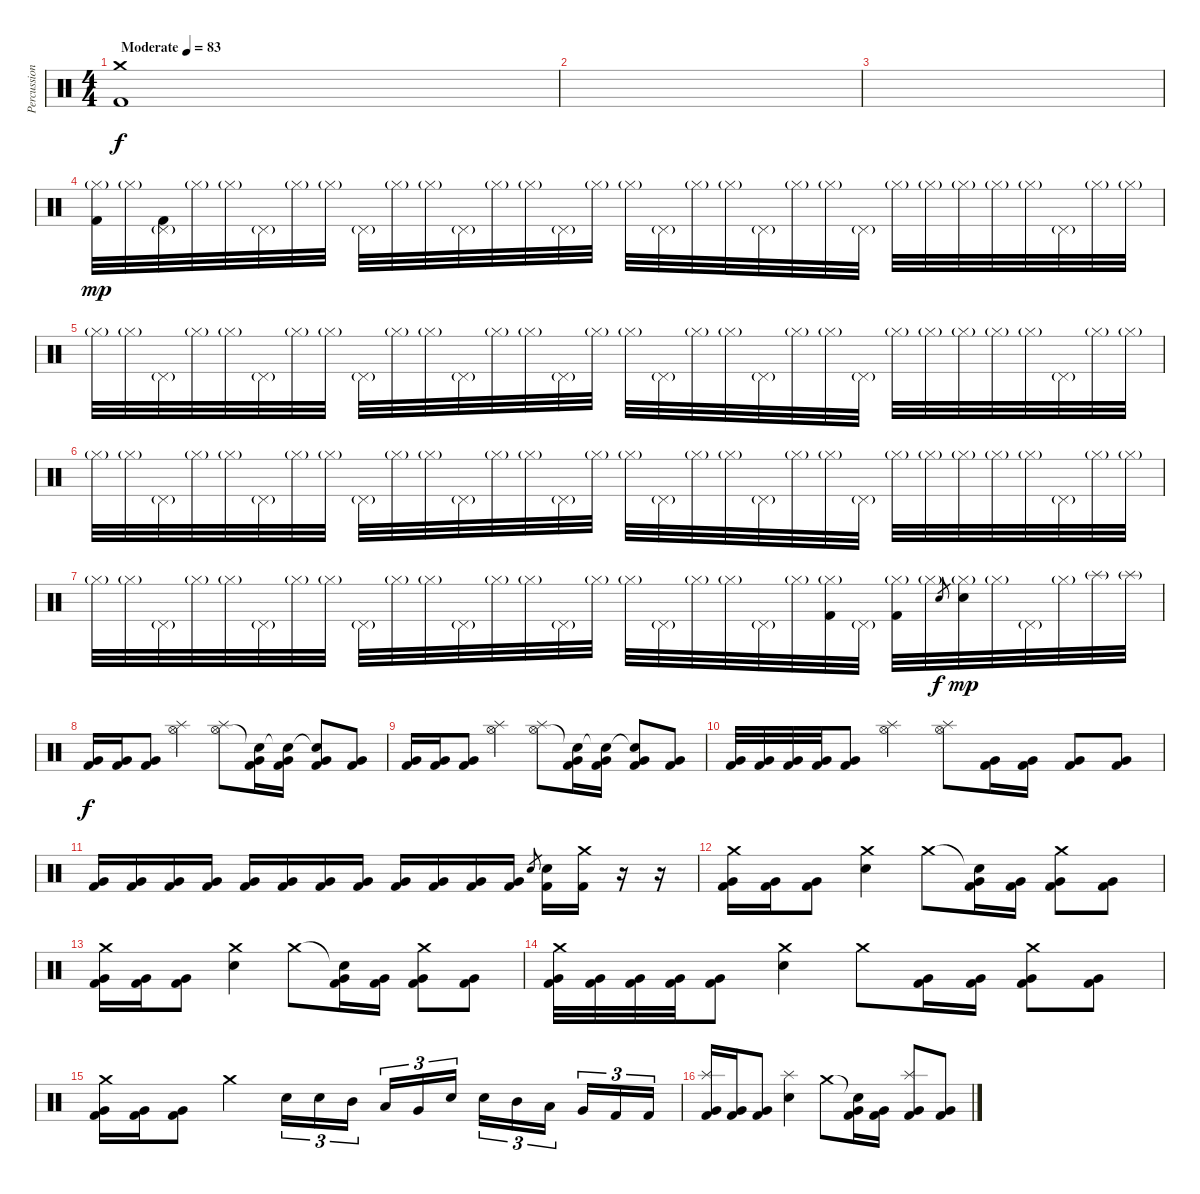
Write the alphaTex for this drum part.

\track ("Percussion" "Percussion") {instrument percussion}
\staff {score}
\articulation defaults
\ts (4 4)
\tempo (83 "Moderate")
\clef neutral
\ks c
("Crash medium (hit)" "Kick (hit) 2").1{dy f} |
|
|
("Hi-Hat (closed)"{g} "Kick (hit) 2").32{dy mp} "Hi-Hat (closed)"{g}.32 ("Pedal Hi-Hat (hit)"{g} "Kick (hit) 2").32 "Hi-Hat (closed)"{g}.32 "Hi-Hat (closed)"{g}.32 "Pedal Hi-Hat (hit)"{g}.32 "Hi-Hat (closed)"{g}.32 "Hi-Hat (closed)"{g}.32 "Pedal Hi-Hat (hit)"{g}.32 "Hi-Hat (closed)"{g}.32 "Hi-Hat (closed)"{g}.32 "Pedal Hi-Hat (hit)"{g}.32 "Hi-Hat (closed)"{g}.32 "Hi-Hat (closed)"{g}.32 "Pedal Hi-Hat (hit)"{g}.32 "Hi-Hat (closed)"{g}.32 "Hi-Hat (closed)"{g}.32 "Pedal Hi-Hat (hit)"{g}.32 "Hi-Hat (closed)"{g}.32 "Hi-Hat (closed)"{g}.32 "Pedal Hi-Hat (hit)"{g}.32 "Hi-Hat (closed)"{g}.32 "Hi-Hat (closed)"{g}.32 "Pedal Hi-Hat (hit)"{g}.32 "Hi-Hat (closed)"{g}.32 "Hi-Hat (closed)"{g}.32 "Hi-Hat (closed)"{g}.32 "Hi-Hat (closed)"{g}.32 "Hi-Hat (closed)"{g}.32 "Pedal Hi-Hat (hit)"{g}.32 "Hi-Hat (closed)"{g}.32 "Hi-Hat (closed)"{g}.32 |
"Hi-Hat (closed)"{g}.32 "Hi-Hat (closed)"{g}.32 "Pedal Hi-Hat (hit)"{g}.32 "Hi-Hat (closed)"{g}.32 "Hi-Hat (closed)"{g}.32 "Pedal Hi-Hat (hit)"{g}.32 "Hi-Hat (closed)"{g}.32 "Hi-Hat (closed)"{g}.32 "Pedal Hi-Hat (hit)"{g}.32 "Hi-Hat (closed)"{g}.32 "Hi-Hat (closed)"{g}.32 "Pedal Hi-Hat (hit)"{g}.32 "Hi-Hat (closed)"{g}.32 "Hi-Hat (closed)"{g}.32 "Pedal Hi-Hat (hit)"{g}.32 "Hi-Hat (closed)"{g}.32 "Hi-Hat (closed)"{g}.32 "Pedal Hi-Hat (hit)"{g}.32 "Hi-Hat (closed)"{g}.32 "Hi-Hat (closed)"{g}.32 "Pedal Hi-Hat (hit)"{g}.32 "Hi-Hat (closed)"{g}.32 "Hi-Hat (closed)"{g}.32 "Pedal Hi-Hat (hit)"{g}.32 "Hi-Hat (closed)"{g}.32 "Hi-Hat (closed)"{g}.32 "Hi-Hat (closed)"{g}.32 "Hi-Hat (closed)"{g}.32 "Hi-Hat (closed)"{g}.32 "Pedal Hi-Hat (hit)"{g}.32 "Hi-Hat (closed)"{g}.32 "Hi-Hat (closed)"{g}.32 |
"Hi-Hat (closed)"{g}.32 "Hi-Hat (closed)"{g}.32 "Pedal Hi-Hat (hit)"{g}.32 "Hi-Hat (closed)"{g}.32 "Hi-Hat (closed)"{g}.32 "Pedal Hi-Hat (hit)"{g}.32 "Hi-Hat (closed)"{g}.32 "Hi-Hat (closed)"{g}.32 "Pedal Hi-Hat (hit)"{g}.32 "Hi-Hat (closed)"{g}.32 "Hi-Hat (closed)"{g}.32 "Pedal Hi-Hat (hit)"{g}.32 "Hi-Hat (closed)"{g}.32 "Hi-Hat (closed)"{g}.32 "Pedal Hi-Hat (hit)"{g}.32 "Hi-Hat (closed)"{g}.32 "Hi-Hat (closed)"{g}.32 "Pedal Hi-Hat (hit)"{g}.32 "Hi-Hat (closed)"{g}.32 "Hi-Hat (closed)"{g}.32 "Pedal Hi-Hat (hit)"{g}.32 "Hi-Hat (closed)"{g}.32 "Hi-Hat (closed)"{g}.32 "Pedal Hi-Hat (hit)"{g}.32 "Hi-Hat (closed)"{g}.32 "Hi-Hat (closed)"{g}.32 "Hi-Hat (closed)"{g}.32 "Hi-Hat (closed)"{g}.32 "Hi-Hat (closed)"{g}.32 "Pedal Hi-Hat (hit)"{g}.32 "Hi-Hat (closed)"{g}.32 "Hi-Hat (closed)"{g}.32 |
"Hi-Hat (closed)"{g}.32 "Hi-Hat (closed)"{g}.32 "Pedal Hi-Hat (hit)"{g}.32 "Hi-Hat (closed)"{g}.32 "Hi-Hat (closed)"{g}.32 "Pedal Hi-Hat (hit)"{g}.32 "Hi-Hat (closed)"{g}.32 "Hi-Hat (closed)"{g}.32 "Pedal Hi-Hat (hit)"{g}.32 "Hi-Hat (closed)"{g}.32 "Hi-Hat (closed)"{g}.32 "Pedal Hi-Hat (hit)"{g}.32 "Hi-Hat (closed)"{g}.32 "Hi-Hat (closed)"{g}.32 "Pedal Hi-Hat (hit)"{g}.32 "Hi-Hat (closed)"{g}.32 "Hi-Hat (closed)"{g}.32 "Pedal Hi-Hat (hit)"{g}.32 "Hi-Hat (closed)"{g}.32 "Hi-Hat (closed)"{g}.32 "Pedal Hi-Hat (hit)"{g}.32 "Hi-Hat (closed)"{g}.32 ("Hi-Hat (closed)"{g} "Kick (hit) 2").32 "Pedal Hi-Hat (hit)"{g}.32 ("Hi-Hat (closed)"{g} "Kick (hit) 2").32 "Hi-Hat (closed)"{g}.32 "Electric Snare (hit)".8{gr dy f} ("Hi-Hat (closed)"{g} "Electric Snare (hit)").32{dy mp} "Hi-Hat (closed)"{g}.32 "Pedal Hi-Hat (hit)"{g}.32 "Hi-Hat (closed)"{g}.32 "Splash (hit)"{g}.32 "Splash (hit)"{g}.32 |
("Very Low Tom (hit)" "Kick (hit) 2").16{dy f} ("Very Low Tom (hit)" "Kick (hit) 2").16 ("Very Low Tom (hit)" "Kick (hit) 2").8 ("Hi-Hat (open)" "Splash (hit)").4 ("Hi-Hat (open)" "Splash (hit)").8 ("Snare (hit)"{t} "Very Low Tom (hit)" "Kick (hit) 2").16 ("Snare (hit)"{t} "Very Low Tom (hit)" "Kick (hit) 2").16 ("Snare (hit)"{t} "Very Low Tom (hit)" "Kick (hit) 2").8 ("Very Low Tom (hit)" "Kick (hit) 2").8 |
("Very Low Tom (hit)" "Kick (hit) 2").16 ("Very Low Tom (hit)" "Kick (hit) 2").16 ("Very Low Tom (hit)" "Kick (hit) 2").8 ("Hi-Hat (open)" "Splash (hit)").4 ("Hi-Hat (open)" "Splash (hit)").8 ("Snare (hit)"{t} "Very Low Tom (hit)" "Kick (hit) 2").16 ("Snare (hit)"{t} "Very Low Tom (hit)" "Kick (hit) 2").16 ("Snare (hit)"{t} "Very Low Tom (hit)" "Kick (hit) 2").8 ("Very Low Tom (hit)" "Kick (hit) 2").8 |
("Very Low Tom (hit)" "Kick (hit) 2").32 ("Very Low Tom (hit)" "Kick (hit) 2").32 ("Very Low Tom (hit)" "Kick (hit) 2").32 ("Very Low Tom (hit)" "Kick (hit) 2").32 ("Very Low Tom (hit)" "Kick (hit) 2").8 ("Hi-Hat (open)" "Splash (hit)").4 ("Hi-Hat (open)" "Splash (hit)").8 ("Very Low Tom (hit)" "Kick (hit) 2").16 ("Very Low Tom (hit)" "Kick (hit) 2").16 ("Very Low Tom (hit)" "Kick (hit) 2").8 ("Very Low Tom (hit)" "Kick (hit) 2").8 |
("Very Low Tom (hit)" "Kick (hit) 2").16 ("Very Low Tom (hit)" "Kick (hit) 2").16 ("Very Low Tom (hit)" "Kick (hit) 2").16 ("Very Low Tom (hit)" "Kick (hit) 2").16 ("Very Low Tom (hit)" "Kick (hit) 2").16 ("Very Low Tom (hit)" "Kick (hit) 2").16 ("Very Low Tom (hit)" "Kick (hit) 2").16 ("Very Low Tom (hit)" "Kick (hit) 2").16 ("Very Low Tom (hit)" "Kick (hit) 2").16 ("Very Low Tom (hit)" "Kick (hit) 2").16 ("Very Low Tom (hit)" "Kick (hit) 2").16 ("Very Low Tom (hit)" "Kick (hit) 2").16 "Electric Snare (hit)".8{gr} ("Electric Snare (hit)" "Kick (hit) 2").16 ("Crash medium (hit)" "Kick (hit) 2").16 r.16 r.16 |
("Crash medium (hit)" "Very Low Tom (hit)" "Kick (hit) 2").16 ("Very Low Tom (hit)" "Kick (hit) 2").16 ("Very Low Tom (hit)" "Kick (hit) 2").8 ("Crash medium (hit)" "Electric Snare (hit)").4 "Crash medium (hit)".8 ("Snare (hit)"{t} "Very Low Tom (hit)" "Kick (hit) 2").16 ("Very Low Tom (hit)" "Kick (hit) 2").16 ("Crash medium (hit)" "Very Low Tom (hit)" "Kick (hit) 2").8 ("Very Low Tom (hit)" "Kick (hit) 2").8 |
("Crash medium (hit)" "Very Low Tom (hit)" "Kick (hit) 2").16 ("Very Low Tom (hit)" "Kick (hit) 2").16 ("Very Low Tom (hit)" "Kick (hit) 2").8 ("Crash medium (hit)" "Electric Snare (hit)").4 "Crash medium (hit)".8 ("Snare (hit)"{t} "Very Low Tom (hit)" "Kick (hit) 2").16 ("Very Low Tom (hit)" "Kick (hit) 2").16 ("Crash medium (hit)" "Very Low Tom (hit)" "Kick (hit) 2").8 ("Very Low Tom (hit)" "Kick (hit) 2").8 |
("Crash medium (hit)" "Very Low Tom (hit)" "Kick (hit) 2").32 ("Very Low Tom (hit)" "Kick (hit) 2").32 ("Very Low Tom (hit)" "Kick (hit) 2").32 ("Very Low Tom (hit)" "Kick (hit) 2").32 ("Very Low Tom (hit)" "Kick (hit) 2").8 ("Crash medium (hit)" "Electric Snare (hit)").4 "Crash medium (hit)".8 ("Very Low Tom (hit)" "Kick (hit) 2").16 ("Very Low Tom (hit)" "Kick (hit) 2").16 ("Crash medium (hit)" "Very Low Tom (hit)" "Kick (hit) 2").8 ("Very Low Tom (hit)" "Kick (hit) 2").8 |
("Crash medium (hit)" "Very Low Tom (hit)" "Kick (hit) 2").16 ("Very Low Tom (hit)" "Kick (hit) 2").16 ("Very Low Tom (hit)" "Kick (hit) 2").8 "Crash medium (hit)".4 "Electric Snare (hit)".16{tu (3 2)} "Electric Snare (hit)".16{tu (3 2)} "Mid Tom (hit)".16{tu (3 2) beam splitsecondary} "Low Tom (hit)".16{tu (3 2)} "Very Low Tom (hit)".16{tu (3 2)} "Electric Snare (hit)".16{tu (3 2)} "Electric Snare (hit)".16{tu (3 2)} "Mid Tom (hit)".16{tu (3 2)} "Low Tom (hit)".16{tu (3 2) beam splitsecondary} "Very Low Tom (hit)".16{tu (3 2)} "Kick (hit) 2".16{tu (3 2)} "Kick (hit) 2".16{tu (3 2)} |
("Splash (hit)" "Very Low Tom (hit)" "Kick (hit) 2").16 ("Very Low Tom (hit)" "Kick (hit) 2").16 ("Very Low Tom (hit)" "Kick (hit) 2").8 ("Splash (hit)" "Electric Snare (hit)").4 "Crash medium (hit)".8 ("Snare (hit)"{t} "Very Low Tom (hit)" "Kick (hit) 2").16 ("Very Low Tom (hit)" "Kick (hit) 2").16 ("Splash (hit)" "Very Low Tom (hit)" "Kick (hit) 2").8 ("Very Low Tom (hit)" "Kick (hit) 2").8
